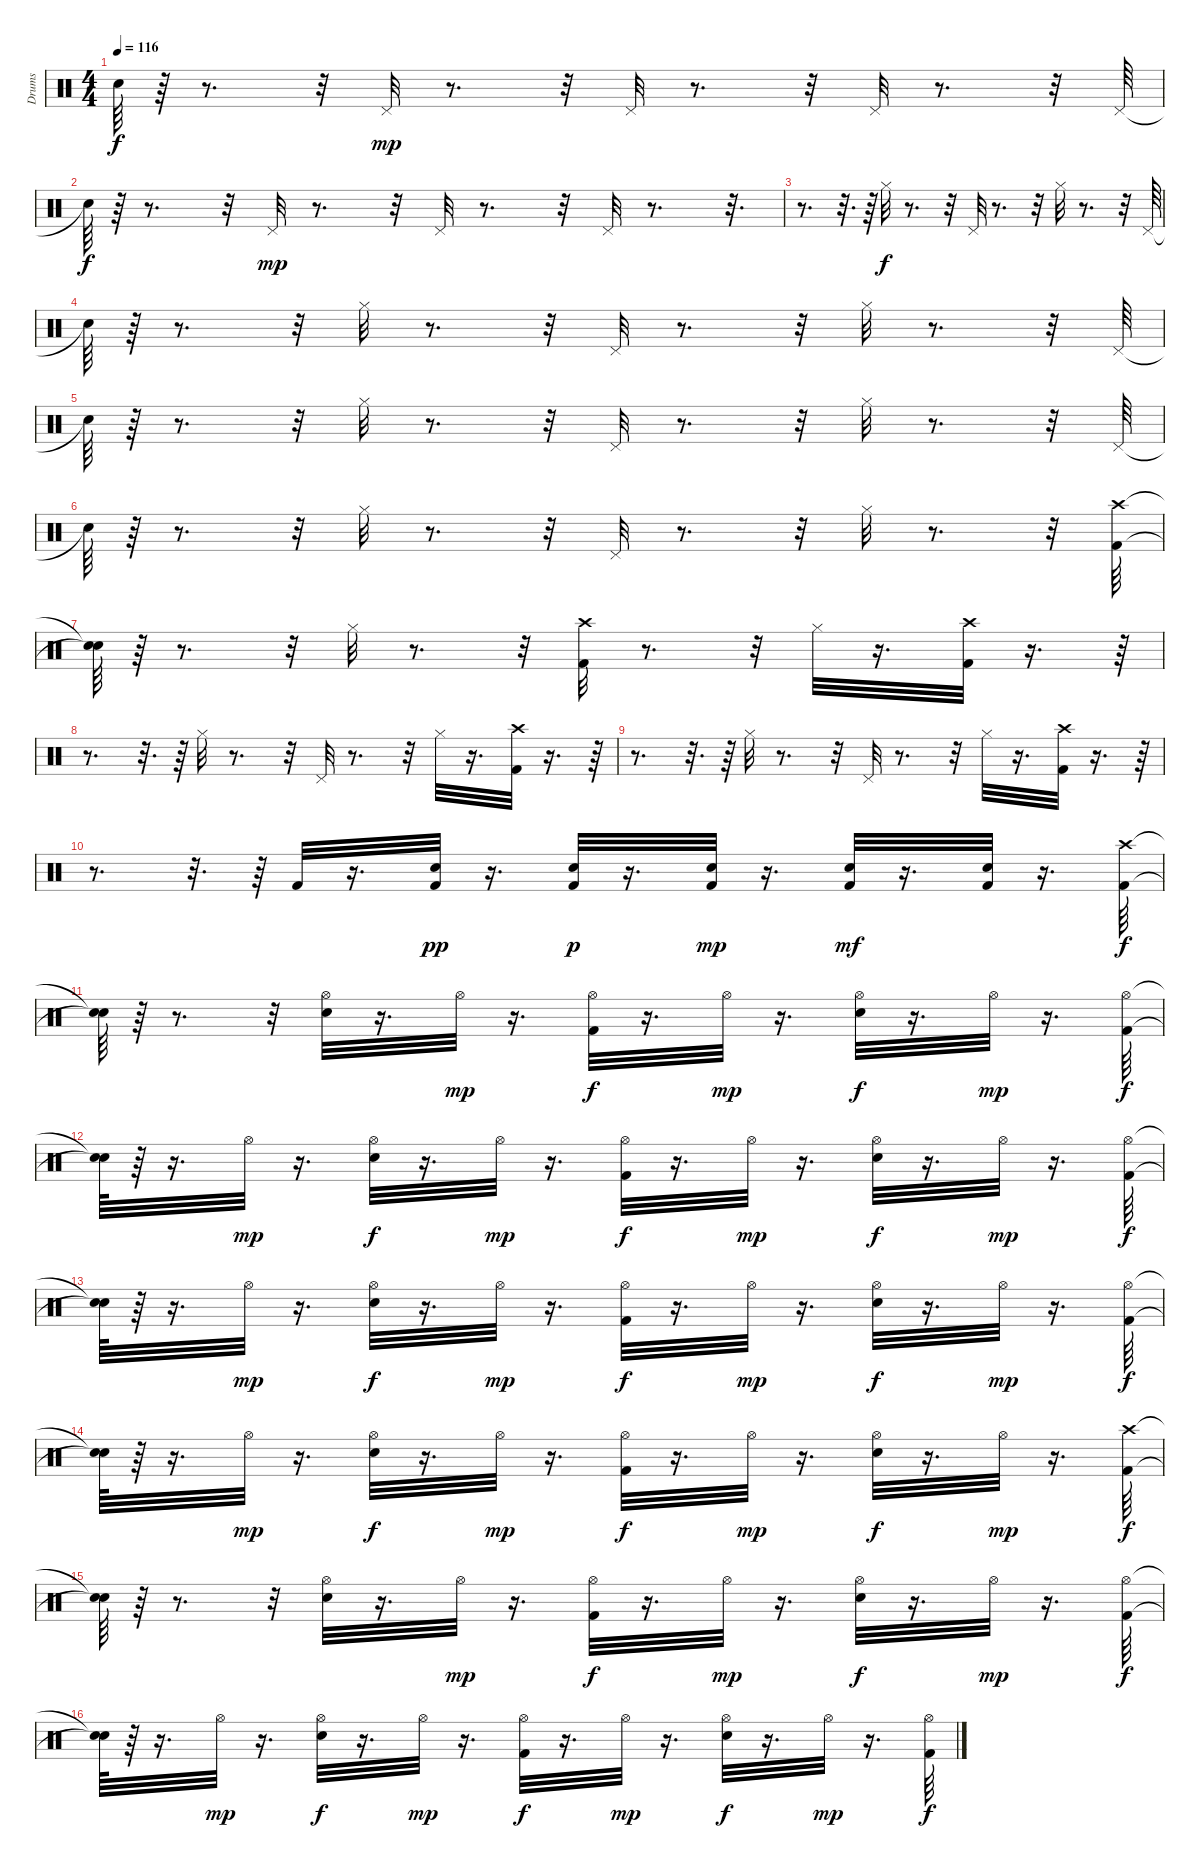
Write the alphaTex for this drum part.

\track ("Drums" "Drums") {instrument percussion}
\staff {score}
\articulation defaults
\ts (4 4)
\tempo 116
\clef neutral
\ks c "Snare (hit)"{t}.64{dy f}
r.64 r.8{d} r.32 "Pedal Hi-Hat (hit)".32{dy mp} r.8{d} r.32 "Pedal Hi-Hat (hit)".32 r.8{d} r.32 "Pedal Hi-Hat (hit)".32 r.8{d} r.32 "Pedal Hi-Hat (hit)".64 |
"Snare (hit)"{t}.64{dy f} r.64 r.8{d} r.32 "Pedal Hi-Hat (hit)".32{dy mp} r.8{d} r.32 "Pedal Hi-Hat (hit)".32 r.8{d} r.32 "Pedal Hi-Hat (hit)".32 r.8{d} r.32{d} |
r.8{d} r.32{d} r.64 "Hi-Hat (closed)".32{dy f} r.8{d} r.32 "Pedal Hi-Hat (hit)".32 r.8{d} r.32 "Hi-Hat (closed)".32 r.8{d} r.32 "Pedal Hi-Hat (hit)".64 |
"Snare (hit)"{t}.64 r.64 r.8{d} r.32 "Hi-Hat (closed)".32 r.8{d} r.32 "Pedal Hi-Hat (hit)".32 r.8{d} r.32 "Hi-Hat (closed)".32 r.8{d} r.32 "Pedal Hi-Hat (hit)".64 |
"Snare (hit)"{t}.64 r.64 r.8{d} r.32 "Hi-Hat (closed)".32 r.8{d} r.32 "Pedal Hi-Hat (hit)".32 r.8{d} r.32 "Hi-Hat (closed)".32 r.8{d} r.32 "Pedal Hi-Hat (hit)".64 |
"Snare (hit)"{t}.64 r.64 r.8{d} r.32 "Hi-Hat (closed)".32 r.8{d} r.32 "Pedal Hi-Hat (hit)".32 r.8{d} r.32 "Hi-Hat (closed)".32 r.8{d} r.32 ("Crash high (hit)" "Kick (hit) 2").64 |
("Snare (hit)"{t} "Snare (hit)"{t}).64 r.64 r.8{d} r.32 "Hi-Hat (closed)".32 r.8{d} r.32 ("Crash high (hit)" "Kick (hit) 2").32 r.8{d} r.32 "Hi-Hat (closed)".32 r.16{d} ("Crash high (hit)" "Kick (hit) 2").32 r.16{d} r.64 |
r.8{d} r.32{d} r.64 "Hi-Hat (closed)".32 r.8{d} r.32 "Pedal Hi-Hat (hit)".32 r.8{d} r.32 "Hi-Hat (closed)".32 r.16{d} ("Kick (hit) 2" "Crash high (hit)").32 r.16{d} r.64 |
r.8{d} r.32{d} r.64 "Hi-Hat (closed)".32 r.8{d} r.32 "Pedal Hi-Hat (hit)".32 r.8{d} r.32 "Hi-Hat (closed)".32 r.16{d} ("Kick (hit) 2" "Crash high (hit)").32 r.16{d} r.64 |
r.8{d} r.32{d} r.64 "Kick (hit) 2".32 r.16{d} ("Electric Snare (hit)" "Kick (hit) 2").32{dy pp} r.16{d} ("Electric Snare (hit)" "Kick (hit) 2").32{dy p} r.16{d} ("Electric Snare (hit)" "Kick (hit) 2").32{dy mp} r.16{d} ("Electric Snare (hit)" "Kick (hit) 2").32{dy mf} r.16{d} ("Kick (hit) 2" "Electric Snare (hit)").32 r.16{d} ("Crash high (hit)" "Kick (hit) 2").64{dy f} |
("Snare (hit)"{t} "Snare (hit)"{t}).64 r.64 r.8{d} r.32 ("Hi-Hat (open)" "Electric Snare (hit)").32 r.16{d} "Hi-Hat (open)".32{dy mp} r.16{d} ("Hi-Hat (open)" "Kick (hit) 2").32{dy f} r.16{d} "Hi-Hat (open)".32{dy mp} r.16{d} ("Hi-Hat (open)" "Electric Snare (hit)").32{dy f} r.16{d} "Hi-Hat (open)".32{dy mp} r.16{d} ("Kick (hit) 2" "Hi-Hat (open)").64{dy f} |
("Snare (hit)"{t} "Snare (hit)"{t}).64 r.64 r.16{d} "Hi-Hat (open)".32{dy mp} r.16{d} ("Electric Snare (hit)" "Hi-Hat (open)").32{dy f} r.16{d} "Hi-Hat (open)".32{dy mp} r.16{d} ("Kick (hit) 2" "Hi-Hat (open)").32{dy f} r.16{d} "Hi-Hat (open)".32{dy mp} r.16{d} ("Electric Snare (hit)" "Hi-Hat (open)").32{dy f} r.16{d} "Hi-Hat (open)".32{dy mp} r.16{d} ("Kick (hit) 2" "Hi-Hat (open)").64{dy f} |
("Snare (hit)"{t} "Snare (hit)"{t}).64 r.64 r.16{d} "Hi-Hat (open)".32{dy mp} r.16{d} ("Electric Snare (hit)" "Hi-Hat (open)").32{dy f} r.16{d} "Hi-Hat (open)".32{dy mp} r.16{d} ("Kick (hit) 2" "Hi-Hat (open)").32{dy f} r.16{d} "Hi-Hat (open)".32{dy mp} r.16{d} ("Electric Snare (hit)" "Hi-Hat (open)").32{dy f} r.16{d} "Hi-Hat (open)".32{dy mp} r.16{d} ("Kick (hit) 2" "Hi-Hat (open)").64{dy f} |
("Snare (hit)"{t} "Snare (hit)"{t}).64 r.64 r.16{d} "Hi-Hat (open)".32{dy mp} r.16{d} ("Electric Snare (hit)" "Hi-Hat (open)").32{dy f} r.16{d} "Hi-Hat (open)".32{dy mp} r.16{d} ("Kick (hit) 2" "Hi-Hat (open)").32{dy f} r.16{d} "Hi-Hat (open)".32{dy mp} r.16{d} ("Electric Snare (hit)" "Hi-Hat (open)").32{dy f} r.16{d} "Hi-Hat (open)".32{dy mp} r.16{d} ("Crash high (hit)" "Kick (hit) 2").64{dy f} |
("Snare (hit)"{t} "Snare (hit)"{t}).64 r.64 r.8{d} r.32 ("Hi-Hat (open)" "Electric Snare (hit)").32 r.16{d} "Hi-Hat (open)".32{dy mp} r.16{d} ("Hi-Hat (open)" "Kick (hit) 2").32{dy f} r.16{d} "Hi-Hat (open)".32{dy mp} r.16{d} ("Hi-Hat (open)" "Electric Snare (hit)").32{dy f} r.16{d} "Hi-Hat (open)".32{dy mp} r.16{d} ("Kick (hit) 2" "Hi-Hat (open)").64{dy f} |
("Snare (hit)"{t} "Snare (hit)"{t}).64 r.64 r.16{d} "Hi-Hat (open)".32{dy mp} r.16{d} ("Electric Snare (hit)" "Hi-Hat (open)").32{dy f} r.16{d} "Hi-Hat (open)".32{dy mp} r.16{d} ("Kick (hit) 2" "Hi-Hat (open)").32{dy f} r.16{d} "Hi-Hat (open)".32{dy mp} r.16{d} ("Electric Snare (hit)" "Hi-Hat (open)").32{dy f} r.16{d} "Hi-Hat (open)".32{dy mp} r.16{d} ("Kick (hit) 2" "Hi-Hat (open)").64{dy f}
